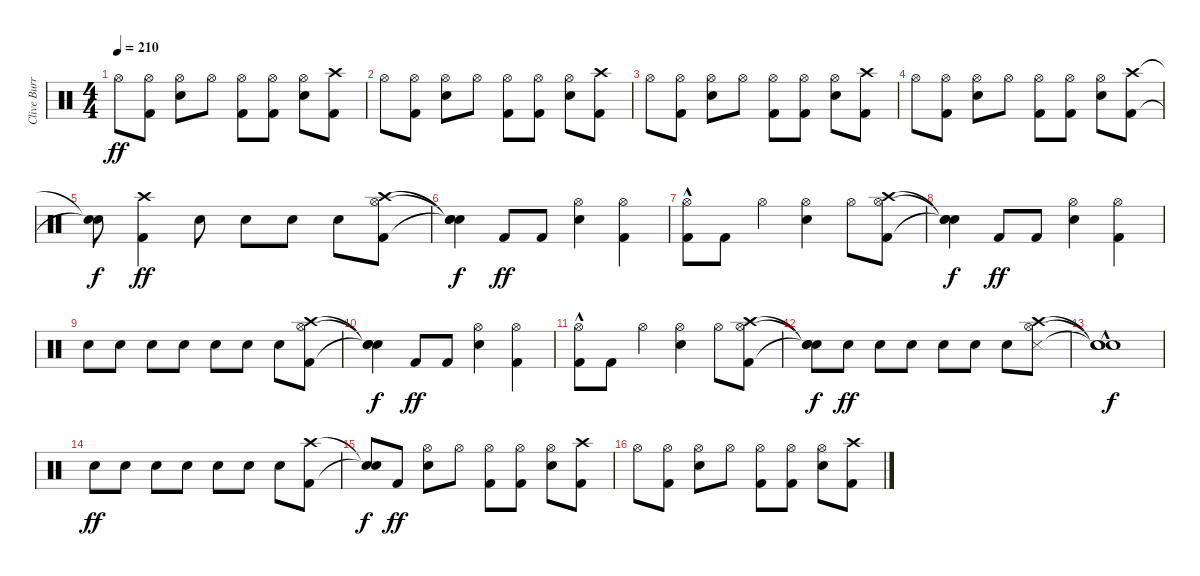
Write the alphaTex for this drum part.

\track ("Clive Burr" "Clive Burr") {instrument percussion}
\staff {score}
\articulation defaults
\ts (4 4)
\tempo 210
\clef neutral
\ks c "Hi-Hat (open)".8{dy ff}
("Kick (hit) 2" "Hi-Hat (open)").8 ("Snare (hit) 2" "Hi-Hat (open)").8 "Hi-Hat (open)".8 ("Kick (hit) 2" "Hi-Hat (open)").8 ("Kick (hit) 2" "Hi-Hat (open)").8 ("Snare (hit) 2" "Hi-Hat (open)").8 ("Kick (hit) 2" "Crash high (hit)").8 |
"Hi-Hat (open)".8 ("Kick (hit) 2" "Hi-Hat (open)").8 ("Snare (hit) 2" "Hi-Hat (open)").8 "Hi-Hat (open)".8 ("Kick (hit) 2" "Hi-Hat (open)").8 ("Kick (hit) 2" "Hi-Hat (open)").8 ("Snare (hit) 2" "Hi-Hat (open)").8 ("Kick (hit) 2" "Crash high (hit)").8 |
"Hi-Hat (open)".8 ("Kick (hit) 2" "Hi-Hat (open)").8 ("Snare (hit) 2" "Hi-Hat (open)").8 "Hi-Hat (open)".8 ("Kick (hit) 2" "Hi-Hat (open)").8 ("Kick (hit) 2" "Hi-Hat (open)").8 ("Snare (hit) 2" "Hi-Hat (open)").8 ("Kick (hit) 2" "Crash high (hit)").8 |
"Hi-Hat (open)".8 ("Kick (hit) 2" "Hi-Hat (open)").8 ("Snare (hit) 2" "Hi-Hat (open)").8 "Hi-Hat (open)".8 ("Kick (hit) 2" "Hi-Hat (open)").8 ("Kick (hit) 2" "Hi-Hat (open)").8 ("Snare (hit) 2" "Hi-Hat (open)").8 ("Kick (hit) 2" "Crash high (hit)").8 |
("Snare (hit)"{t} "Snare (hit)"{t}).8{dy f} ("Kick (hit) 2" "Crash high (hit)").4{dy ff} "Snare (hit) 2".8 "Snare (hit) 2".8 "Snare (hit) 2".8 "Snare (hit) 2".8 ("Kick (hit) 2" "Hi-Hat (open)" "Crash high (hit)").8 |
("Snare (hit)"{t} "Snare (hit)"{t} "Snare (hit)"{t}).4{dy f} "Kick (hit) 2".8{dy ff} "Kick (hit) 2".8 ("Snare (hit) 2" "Hi-Hat (open)").4 ("Kick (hit) 2" "Hi-Hat (open)").4 |
("Kick (hit) 2" "Hi-Hat (open)"{hac}).8 "Kick (hit) 2".8 "Hi-Hat (open)".4 ("Snare (hit) 2" "Hi-Hat (open)").4 "Hi-Hat (open)".8 ("Kick (hit) 2" "Hi-Hat (open)" "Crash high (hit)").8 |
("Snare (hit)"{t} "Snare (hit)"{t} "Snare (hit)"{t}).4{dy f} "Kick (hit) 2".8{dy ff} "Kick (hit) 2".8 ("Snare (hit) 2" "Hi-Hat (open)").4 ("Kick (hit) 2" "Hi-Hat (open)").4 |
"Snare (hit) 2".8 "Snare (hit) 2".8 "Snare (hit) 2".8 "Snare (hit) 2".8 "Snare (hit) 2".8 "Snare (hit) 2".8 "Snare (hit) 2".8 ("Kick (hit) 2" "Hi-Hat (open)" "Crash high (hit)").8 |
("Snare (hit)"{t} "Snare (hit)"{t} "Snare (hit)"{t}).4{dy f} "Kick (hit) 2".8{dy ff} "Kick (hit) 2".8 ("Snare (hit) 2" "Hi-Hat (open)").4 ("Kick (hit) 2" "Hi-Hat (open)").4 |
("Kick (hit) 2" "Hi-Hat (open)"{hac}).8 "Kick (hit) 2".8 "Hi-Hat (open)".4 ("Snare (hit) 2" "Hi-Hat (open)").4 "Hi-Hat (open)".8 ("Kick (hit) 2" "Hi-Hat (open)" "Crash high (hit)").8 |
("Snare (hit)"{t} "Snare (hit)"{t} "Snare (hit)"{t}).8{dy f} "Snare (hit) 2".8{dy ff} "Snare (hit) 2".8 "Snare (hit) 2".8 "Snare (hit) 2".8 "Snare (hit) 2".8 "Snare (hit) 2".8 ("Snare (side stick) 3" "Hi-Hat (open)" "Crash high (hit)").8 |
("Snare (hit)"{t} "Snare (hit)"{hac t} "Snare (hit)"{hac t}).1{dy f} |
"Snare (hit) 2".8{dy ff} "Snare (hit) 2".8 "Snare (hit) 2".8 "Snare (hit) 2".8 "Snare (hit) 2".8 "Snare (hit) 2".8 "Snare (hit) 2".8 ("Kick (hit) 2" "Crash high (hit)").8 |
("Snare (hit)"{t} "Snare (hit)"{t}).8{dy f} "Kick (hit) 2".8{dy ff} ("Snare (hit) 2" "Hi-Hat (open)").8 "Hi-Hat (open)".8 ("Kick (hit) 2" "Hi-Hat (open)").8 ("Kick (hit) 2" "Hi-Hat (open)").8 ("Snare (hit) 2" "Hi-Hat (open)").8 ("Kick (hit) 2" "Crash high (hit)").8 |
"Hi-Hat (open)".8 ("Kick (hit) 2" "Hi-Hat (open)").8 ("Snare (hit) 2" "Hi-Hat (open)").8 "Hi-Hat (open)".8 ("Kick (hit) 2" "Hi-Hat (open)").8 ("Kick (hit) 2" "Hi-Hat (open)").8 ("Snare (hit) 2" "Hi-Hat (open)").8 ("Kick (hit) 2" "Crash high (hit)").8
